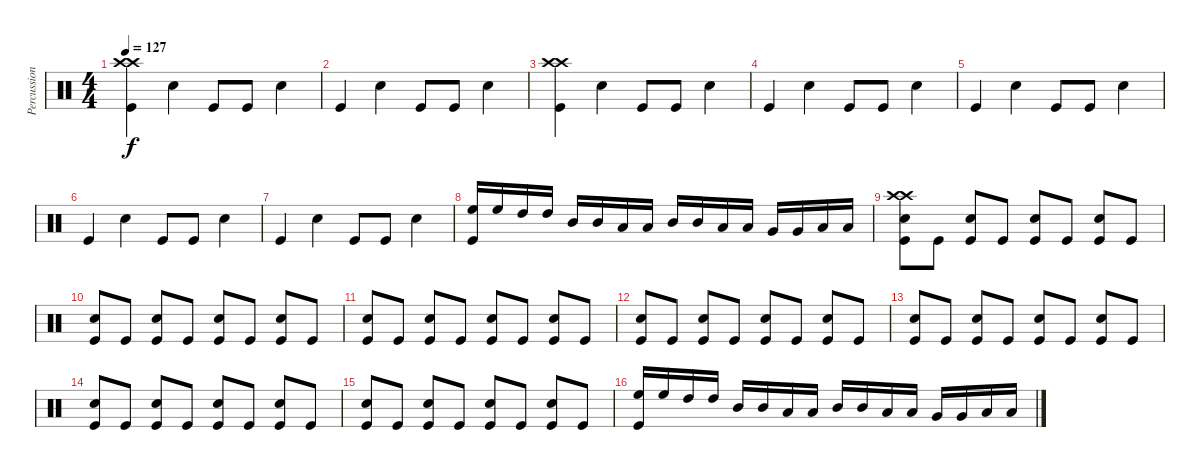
\track ("Percussion" "Percussion") {instrument percussion}
\staff {score}
\articulation defaults
\ts (4 4)
\tempo 127
\clef neutral
\ks c
("Crash high (hit)" "Crash high (hit)" "Kick (hit)").4{dy f} "Snare (hit) 2".4 "Kick (hit)".8 "Kick (hit)".8 "Snare (hit) 2".4 |
"Kick (hit)".4 "Snare (hit) 2".4 "Kick (hit)".8 "Kick (hit)".8 "Snare (hit) 2".4 |
("Crash high (hit)" "Crash high (hit)" "Kick (hit)").4 "Snare (hit) 2".4 "Kick (hit)".8 "Kick (hit)".8 "Snare (hit) 2".4 |
"Kick (hit)".4 "Snare (hit) 2".4 "Kick (hit)".8 "Kick (hit)".8 "Snare (hit) 2".4 |
"Kick (hit)".4 "Snare (hit) 2".4 "Kick (hit)".8 "Kick (hit)".8 "Snare (hit) 2".4 |
"Kick (hit)".4 "Snare (hit) 2".4 "Kick (hit)".8 "Kick (hit)".8 "Snare (hit) 2".4 |
"Kick (hit)".4 "Snare (hit) 2".4 "Kick (hit)".8 "Kick (hit)".8 "Snare (hit) 2".4 |
("High Floor Tom (hit)" "Kick (hit)").16 "High Floor Tom (hit)".16 "High Tom (hit)".16 "High Tom (hit)".16 "Mid Tom (hit)".16 "Mid Tom (hit)".16 "Low Tom (hit)".16 "Low Tom (hit)".16 "Mid Tom (hit)".16 "Mid Tom (hit)".16 "Low Tom (hit)".16 "Low Tom (hit)".16 "Very Low Tom (hit)".16 "Very Low Tom (hit)".16 "Low Floor Tom (hit)".16 "Low Floor Tom (hit)".16 |
("Crash high (hit)" "Crash high (hit)" "Snare (hit) 2" "Kick (hit)").8 "Kick (hit)".8 ("Snare (hit) 2" "Kick (hit)").8 "Kick (hit)".8 ("Snare (hit) 2" "Kick (hit)").8 "Kick (hit)".8 ("Snare (hit) 2" "Kick (hit)").8 "Kick (hit)".8 |
("Snare (hit) 2" "Kick (hit)").8 "Kick (hit)".8 ("Snare (hit) 2" "Kick (hit)").8 "Kick (hit)".8 ("Snare (hit) 2" "Kick (hit)").8 "Kick (hit)".8 ("Snare (hit) 2" "Kick (hit)").8 "Kick (hit)".8 |
("Snare (hit) 2" "Kick (hit)").8 "Kick (hit)".8 ("Snare (hit) 2" "Kick (hit)").8 "Kick (hit)".8 ("Snare (hit) 2" "Kick (hit)").8 "Kick (hit)".8 ("Snare (hit) 2" "Kick (hit)").8 "Kick (hit)".8 |
("Snare (hit) 2" "Kick (hit)").8 "Kick (hit)".8 ("Snare (hit) 2" "Kick (hit)").8 "Kick (hit)".8 ("Snare (hit) 2" "Kick (hit)").8 "Kick (hit)".8 ("Snare (hit) 2" "Kick (hit)").8 "Kick (hit)".8 |
("Snare (hit) 2" "Kick (hit)").8 "Kick (hit)".8 ("Snare (hit) 2" "Kick (hit)").8 "Kick (hit)".8 ("Snare (hit) 2" "Kick (hit)").8 "Kick (hit)".8 ("Snare (hit) 2" "Kick (hit)").8 "Kick (hit)".8 |
("Snare (hit) 2" "Kick (hit)").8 "Kick (hit)".8 ("Snare (hit) 2" "Kick (hit)").8 "Kick (hit)".8 ("Snare (hit) 2" "Kick (hit)").8 "Kick (hit)".8 ("Snare (hit) 2" "Kick (hit)").8 "Kick (hit)".8 |
("Snare (hit) 2" "Kick (hit)").8 "Kick (hit)".8 ("Snare (hit) 2" "Kick (hit)").8 "Kick (hit)".8 ("Snare (hit) 2" "Kick (hit)").8 "Kick (hit)".8 ("Snare (hit) 2" "Kick (hit)").8 "Kick (hit)".8 |
("High Floor Tom (hit)" "Kick (hit)").16 "High Floor Tom (hit)".16 "High Tom (hit)".16 "High Tom (hit)".16 "Mid Tom (hit)".16 "Mid Tom (hit)".16 "Low Tom (hit)".16 "Low Tom (hit)".16 "Mid Tom (hit)".16 "Mid Tom (hit)".16 "Low Tom (hit)".16 "Low Tom (hit)".16 "Very Low Tom (hit)".16 "Very Low Tom (hit)".16 "Low Floor Tom (hit)".16 "Low Floor Tom (hit)".16
